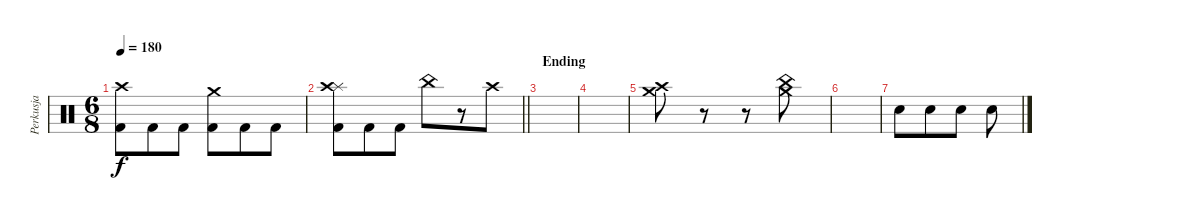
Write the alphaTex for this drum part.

\track ("Perkusja" "Perkusja") {instrument percussion}
\staff {score}
\articulation defaults
\ts (6 8)
\tempo 180
\clef neutral
\ks c
("Crash high (hit)" "Kick (hit) 2").8{dy f} "Kick (hit) 2".8 "Kick (hit) 2".8 ("Crash medium (hit)" "Kick (hit) 2").8 "Kick (hit) 2".8 "Kick (hit) 2".8 |
\barLineRight lightlight
("Splash (hit)" "Crash high (hit)" "Kick (hit) 2").8 "Kick (hit) 2".8 "Kick (hit) 2".8 "China (hit)".8 r.8 "Crash high (hit)".8 |
\section ("" "Ending")
|
|
("Crash medium (hit)" "Crash high (hit)").8 r.8 r.8 ("Crash medium (hit)" "China (hit)").8 |
|
"Snare (hit) 2".8 "Snare (hit) 2".8 "Snare (hit) 2".8 "Snare (hit) 2".8
